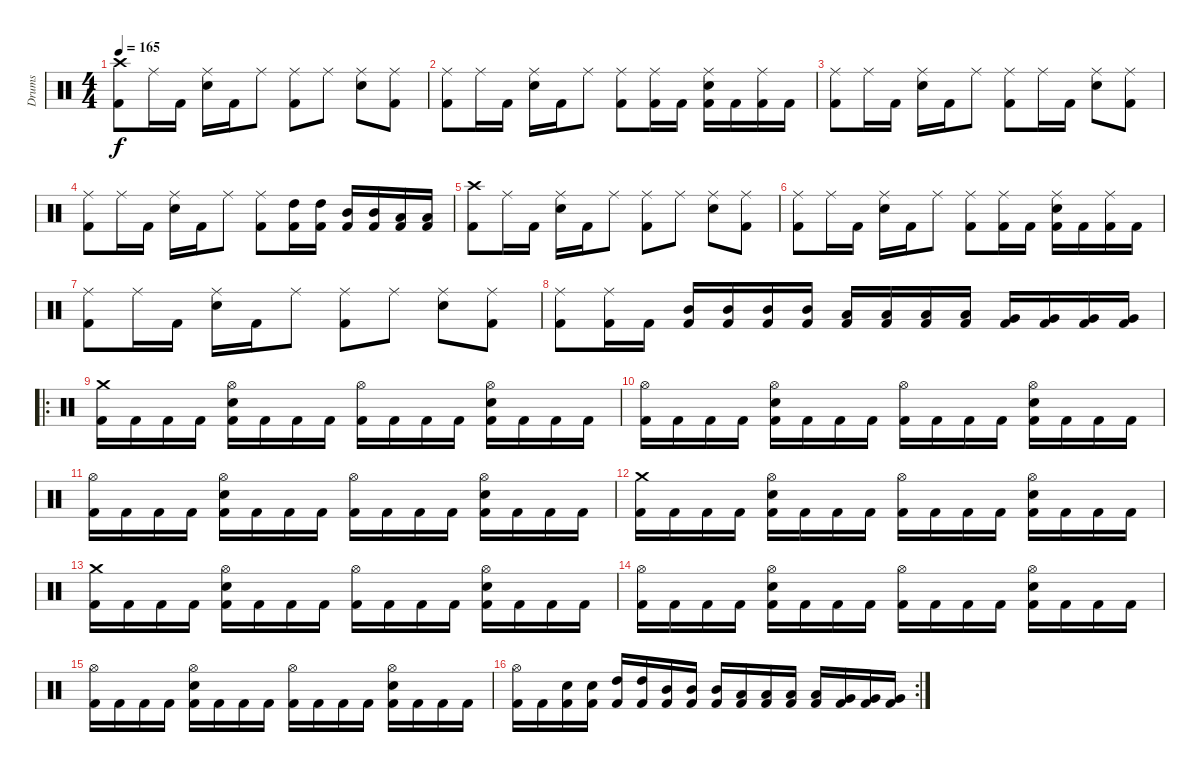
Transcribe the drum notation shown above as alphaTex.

\track ("Drums" "Drums") {instrument percussion}
\staff {score}
\articulation defaults
\ts (4 4)
\tempo 165
\clef neutral
\ks c
("Kick (hit) 2" "Crash high (hit)").8{dy f} "Ride (middle)".16 "Kick (hit) 2".16 ("Electric Snare (hit)" "Ride (middle)").16 "Kick (hit) 2".16 "Ride (middle)".8 ("Kick (hit) 2" "Ride (middle)").8 "Ride (middle)".8 ("Electric Snare (hit)" "Ride (middle)").8 ("Kick (hit) 2" "Ride (middle)").8 |
("Kick (hit) 2" "Ride (middle)").8 "Ride (middle)".16 "Kick (hit) 2".16 ("Electric Snare (hit)" "Ride (middle)").16 "Kick (hit) 2".16 "Ride (middle)".8 ("Kick (hit) 2" "Ride (middle)").8 ("Kick (hit) 2" "Ride (middle)").16 "Kick (hit) 2".16 ("Kick (hit) 2" "Electric Snare (hit)" "Ride (middle)").16 "Kick (hit) 2".16 ("Kick (hit) 2" "Ride (middle)").16 "Kick (hit) 2".16 |
("Kick (hit) 2" "Ride (middle)").8 "Ride (middle)".16 "Kick (hit) 2".16 ("Electric Snare (hit)" "Ride (middle)").16 "Kick (hit) 2".16 "Ride (middle)".8 ("Kick (hit) 2" "Ride (middle)").8 "Ride (middle)".16 "Kick (hit) 2".16 ("Electric Snare (hit)" "Ride (middle)").8 ("Kick (hit) 2" "Ride (middle)").8 |
("Kick (hit) 2" "Ride (middle)").8 "Ride (middle)".16 "Kick (hit) 2".16 ("Electric Snare (hit)" "Ride (middle)").16 "Kick (hit) 2".16 "Ride (middle)".8 ("Kick (hit) 2" "Ride (middle)").8 ("Kick (hit) 2" "High Tom (hit)").16 ("Kick (hit) 2" "High Tom (hit)").16 ("Kick (hit) 2" "Mid Tom (hit)").16 ("Kick (hit) 2" "Mid Tom (hit)").16 ("Kick (hit) 2" "Low Tom (hit)").16 ("Kick (hit) 2" "Low Tom (hit)").16 |
("Kick (hit) 2" "Crash high (hit)").8 "Ride (middle)".16 "Kick (hit) 2".16 ("Electric Snare (hit)" "Ride (middle)").16 "Kick (hit) 2".16 "Ride (middle)".8 ("Kick (hit) 2" "Ride (middle)").8 "Ride (middle)".8 ("Electric Snare (hit)" "Ride (middle)").8 ("Kick (hit) 2" "Ride (middle)").8 |
("Kick (hit) 2" "Ride (middle)").8 "Ride (middle)".16 "Kick (hit) 2".16 ("Electric Snare (hit)" "Ride (middle)").16 "Kick (hit) 2".16 "Ride (middle)".8 ("Kick (hit) 2" "Ride (middle)").8 ("Kick (hit) 2" "Ride (middle)").16 "Kick (hit) 2".16 ("Kick (hit) 2" "Electric Snare (hit)" "Ride (middle)").16 "Kick (hit) 2".16 ("Kick (hit) 2" "Ride (middle)").16 "Kick (hit) 2".16 |
("Kick (hit) 2" "Ride (middle)").8 "Ride (middle)".16 "Kick (hit) 2".16 ("Electric Snare (hit)" "Ride (middle)").16 "Kick (hit) 2".16 "Ride (middle)".8 ("Kick (hit) 2" "Ride (middle)").8 "Ride (middle)".8 ("Electric Snare (hit)" "Ride (middle)").8 ("Kick (hit) 2" "Ride (middle)").8 |
("Kick (hit) 2" "Ride (middle)").8 ("Kick (hit) 2" "Ride (middle)").16 "Kick (hit) 2".16 ("Kick (hit) 2" "Mid Tom (hit)").16 ("Kick (hit) 2" "Mid Tom (hit)").16 ("Kick (hit) 2" "Mid Tom (hit)").16 ("Kick (hit) 2" "Mid Tom (hit)").16 ("Kick (hit) 2" "Low Tom (hit)").16 ("Kick (hit) 2" "Low Tom (hit)").16 ("Kick (hit) 2" "Low Tom (hit)").16 ("Kick (hit) 2" "Low Tom (hit)").16 ("Kick (hit) 2" "Very Low Tom (hit)").16 ("Kick (hit) 2" "Very Low Tom (hit)").16 ("Kick (hit) 2" "Very Low Tom (hit)").16 ("Kick (hit) 2" "Very Low Tom (hit)").16 |
\ro
("Kick (hit) 2" "Crash medium (hit)").16 "Kick (hit) 2".16 "Kick (hit) 2".16 "Kick (hit) 2".16 ("Kick (hit) 2" "Electric Snare (hit)" "Hi-Hat (open)").16 "Kick (hit) 2".16 "Kick (hit) 2".16 "Kick (hit) 2".16 ("Kick (hit) 2" "Hi-Hat (open)").16 "Kick (hit) 2".16 "Kick (hit) 2".16 "Kick (hit) 2".16 ("Kick (hit) 2" "Electric Snare (hit)" "Hi-Hat (open)").16 "Kick (hit) 2".16 "Kick (hit) 2".16 "Kick (hit) 2".16 |
("Kick (hit) 2" "Hi-Hat (open)").16 "Kick (hit) 2".16 "Kick (hit) 2".16 "Kick (hit) 2".16 ("Kick (hit) 2" "Electric Snare (hit)" "Hi-Hat (open)").16 "Kick (hit) 2".16 "Kick (hit) 2".16 "Kick (hit) 2".16 ("Kick (hit) 2" "Hi-Hat (open)").16 "Kick (hit) 2".16 "Kick (hit) 2".16 "Kick (hit) 2".16 ("Kick (hit) 2" "Electric Snare (hit)" "Hi-Hat (open)").16 "Kick (hit) 2".16 "Kick (hit) 2".16 "Kick (hit) 2".16 |
("Kick (hit) 2" "Hi-Hat (open)").16 "Kick (hit) 2".16 "Kick (hit) 2".16 "Kick (hit) 2".16 ("Kick (hit) 2" "Electric Snare (hit)" "Hi-Hat (open)").16 "Kick (hit) 2".16 "Kick (hit) 2".16 "Kick (hit) 2".16 ("Kick (hit) 2" "Hi-Hat (open)").16 "Kick (hit) 2".16 "Kick (hit) 2".16 "Kick (hit) 2".16 ("Kick (hit) 2" "Electric Snare (hit)" "Hi-Hat (open)").16 "Kick (hit) 2".16 "Kick (hit) 2".16 "Kick (hit) 2".16 |
("Kick (hit) 2" "Crash medium (hit)").16 "Kick (hit) 2".16 "Kick (hit) 2".16 "Kick (hit) 2".16 ("Kick (hit) 2" "Electric Snare (hit)" "Hi-Hat (open)").16 "Kick (hit) 2".16 "Kick (hit) 2".16 "Kick (hit) 2".16 ("Kick (hit) 2" "Hi-Hat (open)").16 "Kick (hit) 2".16 "Kick (hit) 2".16 "Kick (hit) 2".16 ("Kick (hit) 2" "Electric Snare (hit)" "Hi-Hat (open)").16 "Kick (hit) 2".16 "Kick (hit) 2".16 "Kick (hit) 2".16 |
("Kick (hit) 2" "Crash medium (hit)").16 "Kick (hit) 2".16 "Kick (hit) 2".16 "Kick (hit) 2".16 ("Kick (hit) 2" "Electric Snare (hit)" "Hi-Hat (open)").16 "Kick (hit) 2".16 "Kick (hit) 2".16 "Kick (hit) 2".16 ("Kick (hit) 2" "Hi-Hat (open)").16 "Kick (hit) 2".16 "Kick (hit) 2".16 "Kick (hit) 2".16 ("Kick (hit) 2" "Electric Snare (hit)" "Hi-Hat (open)").16 "Kick (hit) 2".16 "Kick (hit) 2".16 "Kick (hit) 2".16 |
("Kick (hit) 2" "Hi-Hat (open)").16 "Kick (hit) 2".16 "Kick (hit) 2".16 "Kick (hit) 2".16 ("Kick (hit) 2" "Electric Snare (hit)" "Hi-Hat (open)").16 "Kick (hit) 2".16 "Kick (hit) 2".16 "Kick (hit) 2".16 ("Kick (hit) 2" "Hi-Hat (open)").16 "Kick (hit) 2".16 "Kick (hit) 2".16 "Kick (hit) 2".16 ("Kick (hit) 2" "Electric Snare (hit)" "Hi-Hat (open)").16 "Kick (hit) 2".16 "Kick (hit) 2".16 "Kick (hit) 2".16 |
("Kick (hit) 2" "Hi-Hat (open)").16 "Kick (hit) 2".16 "Kick (hit) 2".16 "Kick (hit) 2".16 ("Kick (hit) 2" "Electric Snare (hit)" "Hi-Hat (open)").16 "Kick (hit) 2".16 "Kick (hit) 2".16 "Kick (hit) 2".16 ("Kick (hit) 2" "Hi-Hat (open)").16 "Kick (hit) 2".16 "Kick (hit) 2".16 "Kick (hit) 2".16 ("Kick (hit) 2" "Electric Snare (hit)" "Hi-Hat (open)").16 "Kick (hit) 2".16 "Kick (hit) 2".16 "Kick (hit) 2".16 |
\rc 2
("Kick (hit) 2" "Hi-Hat (open)").16 "Kick (hit) 2".16 ("Kick (hit) 2" "Electric Snare (hit)").16 ("Kick (hit) 2" "Electric Snare (hit)").16 ("Kick (hit) 2" "High Tom (hit)").16 ("Kick (hit) 2" "High Tom (hit)").16 ("Kick (hit) 2" "Mid Tom (hit)").16 ("Kick (hit) 2" "Mid Tom (hit)").16 ("Kick (hit) 2" "Mid Tom (hit)").16 ("Kick (hit) 2" "Low Tom (hit)").16 ("Kick (hit) 2" "Low Tom (hit)").16 ("Kick (hit) 2" "Low Tom (hit)").16 ("Kick (hit) 2" "Low Tom (hit)").16 ("Kick (hit) 2" "Very Low Tom (hit)").16 ("Kick (hit) 2" "Very Low Tom (hit)").16 ("Kick (hit) 2" "Very Low Tom (hit)").16
